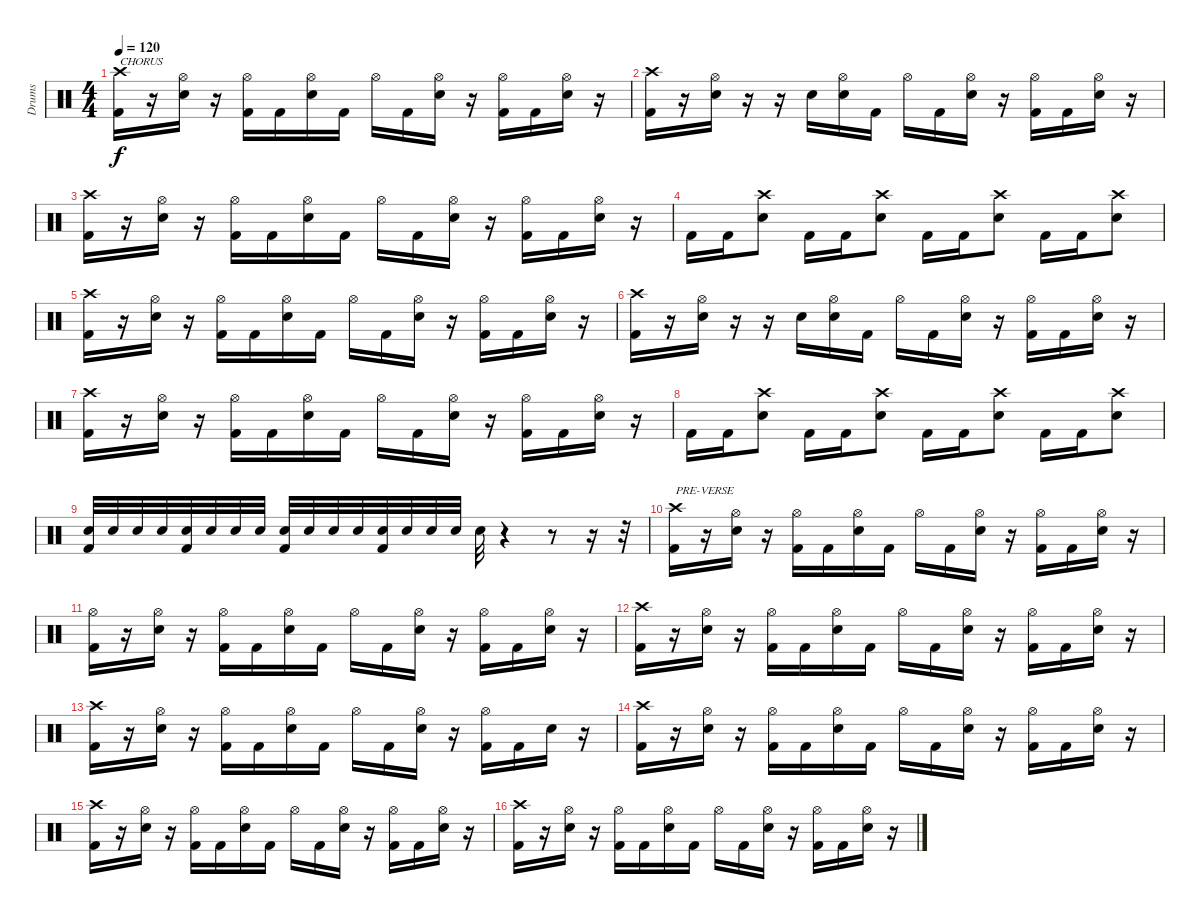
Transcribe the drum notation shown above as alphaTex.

\track ("Drums" "Drums") {instrument percussion}
\staff {score}
\articulation defaults
\ts (4 4)
\tempo 120
\clef neutral
\ks c
("Crash high (hit)" "Kick (hit) 2").16{txt "CHORUS" dy f} r.16 ("Hi-Hat (open)" "Snare (hit) 2").16 r.16 ("Hi-Hat (open)" "Kick (hit) 2").16 "Kick (hit) 2".16 ("Hi-Hat (open)" "Snare (hit) 2").16 "Kick (hit) 2".16 "Hi-Hat (open)".16 "Kick (hit) 2".16 ("Hi-Hat (open)" "Snare (hit) 2").16 r.16 ("Hi-Hat (open)" "Kick (hit) 2").16 "Kick (hit) 2".16 ("Hi-Hat (open)" "Snare (hit) 2").16 r.16 |
("Crash high (hit)" "Kick (hit) 2").16 r.16 ("Hi-Hat (open)" "Snare (hit) 2").16 r.16 r.16 "Snare (hit) 2".16 ("Hi-Hat (open)" "Snare (hit) 2").16 "Kick (hit) 2".16 "Hi-Hat (open)".16 "Kick (hit) 2".16 ("Hi-Hat (open)" "Snare (hit) 2").16 r.16 ("Hi-Hat (open)" "Kick (hit) 2").16 "Kick (hit) 2".16 ("Hi-Hat (open)" "Snare (hit) 2").16 r.16 |
("Crash high (hit)" "Kick (hit) 2").16 r.16 ("Hi-Hat (open)" "Snare (hit) 2").16 r.16 ("Hi-Hat (open)" "Kick (hit) 2").16 "Kick (hit) 2".16 ("Hi-Hat (open)" "Snare (hit) 2").16 "Kick (hit) 2".16 "Hi-Hat (open)".16 "Kick (hit) 2".16 ("Hi-Hat (open)" "Snare (hit) 2").16 r.16 ("Hi-Hat (open)" "Kick (hit) 2").16 "Kick (hit) 2".16 ("Hi-Hat (open)" "Snare (hit) 2").16 r.16 |
"Kick (hit) 2".16 "Kick (hit) 2".16 ("Crash high (hit)" "Snare (hit) 2").8 "Kick (hit) 2".16 "Kick (hit) 2".16 ("Crash high (hit)" "Snare (hit) 2").8 "Kick (hit) 2".16 "Kick (hit) 2".16 ("Crash high (hit)" "Snare (hit) 2").8 "Kick (hit) 2".16 "Kick (hit) 2".16 ("Crash high (hit)" "Snare (hit) 2").8 |
("Crash high (hit)" "Kick (hit) 2").16 r.16 ("Hi-Hat (open)" "Snare (hit) 2").16 r.16 ("Hi-Hat (open)" "Kick (hit) 2").16 "Kick (hit) 2".16 ("Hi-Hat (open)" "Snare (hit) 2").16 "Kick (hit) 2".16 "Hi-Hat (open)".16 "Kick (hit) 2".16 ("Hi-Hat (open)" "Snare (hit) 2").16 r.16 ("Hi-Hat (open)" "Kick (hit) 2").16 "Kick (hit) 2".16 ("Hi-Hat (open)" "Snare (hit) 2").16 r.16 |
("Crash high (hit)" "Kick (hit) 2").16 r.16 ("Hi-Hat (open)" "Snare (hit) 2").16 r.16 r.16 "Snare (hit) 2".16 ("Hi-Hat (open)" "Snare (hit) 2").16 "Kick (hit) 2".16 "Hi-Hat (open)".16 "Kick (hit) 2".16 ("Hi-Hat (open)" "Snare (hit) 2").16 r.16 ("Hi-Hat (open)" "Kick (hit) 2").16 "Kick (hit) 2".16 ("Hi-Hat (open)" "Snare (hit) 2").16 r.16 |
("Crash high (hit)" "Kick (hit) 2").16 r.16 ("Hi-Hat (open)" "Snare (hit) 2").16 r.16 ("Hi-Hat (open)" "Kick (hit) 2").16 "Kick (hit) 2".16 ("Hi-Hat (open)" "Snare (hit) 2").16 "Kick (hit) 2".16 "Hi-Hat (open)".16 "Kick (hit) 2".16 ("Hi-Hat (open)" "Snare (hit) 2").16 r.16 ("Hi-Hat (open)" "Kick (hit) 2").16 "Kick (hit) 2".16 ("Hi-Hat (open)" "Snare (hit) 2").16 r.16 |
"Kick (hit) 2".16 "Kick (hit) 2".16 ("Crash high (hit)" "Snare (hit) 2").8 "Kick (hit) 2".16 "Kick (hit) 2".16 ("Crash high (hit)" "Snare (hit) 2").8 "Kick (hit) 2".16 "Kick (hit) 2".16 ("Crash high (hit)" "Snare (hit) 2").8 "Kick (hit) 2".16 "Kick (hit) 2".16 ("Crash high (hit)" "Snare (hit) 2").8 |
("Snare (hit) 2" "Kick (hit) 2").32 "Snare (hit) 2".32 "Snare (hit) 2".32 "Snare (hit) 2".32 ("Snare (hit) 2" "Kick (hit) 2").32 "Snare (hit) 2".32 "Snare (hit) 2".32 "Snare (hit) 2".32 ("Snare (hit) 2" "Kick (hit) 2").32 "Snare (hit) 2".32 "Snare (hit) 2".32 "Snare (hit) 2".32 ("Snare (hit) 2" "Kick (hit) 2").32 "Snare (hit) 2".32 "Snare (hit) 2".32 "Snare (hit) 2".32 "Snare (hit) 2".32 r.4 r.8 r.16 r.32 |
("Crash high (hit)" "Kick (hit) 2").16{txt "PRE-VERSE"} r.16 ("Hi-Hat (open)" "Snare (hit) 2").16 r.16 ("Hi-Hat (open)" "Kick (hit) 2").16 "Kick (hit) 2".16 ("Hi-Hat (open)" "Snare (hit) 2").16 "Kick (hit) 2".16 "Hi-Hat (open)".16 "Kick (hit) 2".16 ("Hi-Hat (open)" "Snare (hit) 2").16 r.16 ("Hi-Hat (open)" "Kick (hit) 2").16 "Kick (hit) 2".16 ("Hi-Hat (open)" "Snare (hit) 2").16 r.16 |
("Hi-Hat (open)" "Kick (hit) 2").16 r.16 ("Hi-Hat (open)" "Snare (hit) 2").16 r.16 ("Hi-Hat (open)" "Kick (hit) 2").16 "Kick (hit) 2".16 ("Hi-Hat (open)" "Snare (hit) 2").16 "Kick (hit) 2".16 "Hi-Hat (open)".16 "Kick (hit) 2".16 ("Hi-Hat (open)" "Snare (hit) 2").16 r.16 ("Hi-Hat (open)" "Kick (hit) 2").16 "Kick (hit) 2".16 ("Hi-Hat (open)" "Snare (hit) 2").16 r.16 |
("Crash high (hit)" "Kick (hit) 2").16 r.16 ("Hi-Hat (open)" "Snare (hit) 2").16 r.16 ("Hi-Hat (open)" "Kick (hit) 2").16 "Kick (hit) 2".16 ("Hi-Hat (open)" "Snare (hit) 2").16 "Kick (hit) 2".16 "Hi-Hat (open)".16 "Kick (hit) 2".16 ("Hi-Hat (open)" "Snare (hit) 2").16 r.16 ("Hi-Hat (open)" "Kick (hit) 2").16 "Kick (hit) 2".16 ("Hi-Hat (open)" "Snare (hit) 2").16 r.16 |
("Crash high (hit)" "Kick (hit) 2").16 r.16 ("Hi-Hat (open)" "Snare (hit) 2").16 r.16 ("Hi-Hat (open)" "Kick (hit) 2").16 "Kick (hit) 2".16 ("Hi-Hat (open)" "Snare (hit) 2").16 "Kick (hit) 2".16 "Hi-Hat (open)".16 "Kick (hit) 2".16 ("Hi-Hat (open)" "Snare (hit) 2").16 r.16 ("Hi-Hat (open)" "Kick (hit) 2").16 "Kick (hit) 2".16 "Snare (hit) 2".16 r.16 |
("Crash high (hit)" "Kick (hit) 2").16 r.16 ("Hi-Hat (open)" "Snare (hit) 2").16 r.16 ("Hi-Hat (open)" "Kick (hit) 2").16 "Kick (hit) 2".16 ("Hi-Hat (open)" "Snare (hit) 2").16 "Kick (hit) 2".16 "Hi-Hat (open)".16 "Kick (hit) 2".16 ("Hi-Hat (open)" "Snare (hit) 2").16 r.16 ("Hi-Hat (open)" "Kick (hit) 2").16 "Kick (hit) 2".16 ("Hi-Hat (open)" "Snare (hit) 2").16 r.16 |
("Crash high (hit)" "Kick (hit) 2").16 r.16 ("Hi-Hat (open)" "Snare (hit) 2").16 r.16 ("Hi-Hat (open)" "Kick (hit) 2").16 "Kick (hit) 2".16 ("Hi-Hat (open)" "Snare (hit) 2").16 "Kick (hit) 2".16 "Hi-Hat (open)".16 "Kick (hit) 2".16 ("Hi-Hat (open)" "Snare (hit) 2").16 r.16 ("Hi-Hat (open)" "Kick (hit) 2").16 "Kick (hit) 2".16 ("Hi-Hat (open)" "Snare (hit) 2").16 r.16 |
("Crash high (hit)" "Kick (hit) 2").16 r.16 ("Hi-Hat (open)" "Snare (hit) 2").16 r.16 ("Hi-Hat (open)" "Kick (hit) 2").16 "Kick (hit) 2".16 ("Hi-Hat (open)" "Snare (hit) 2").16 "Kick (hit) 2".16 "Hi-Hat (open)".16 "Kick (hit) 2".16 ("Hi-Hat (open)" "Snare (hit) 2").16 r.16 ("Hi-Hat (open)" "Kick (hit) 2").16 "Kick (hit) 2".16 ("Hi-Hat (open)" "Snare (hit) 2").16 r.16
